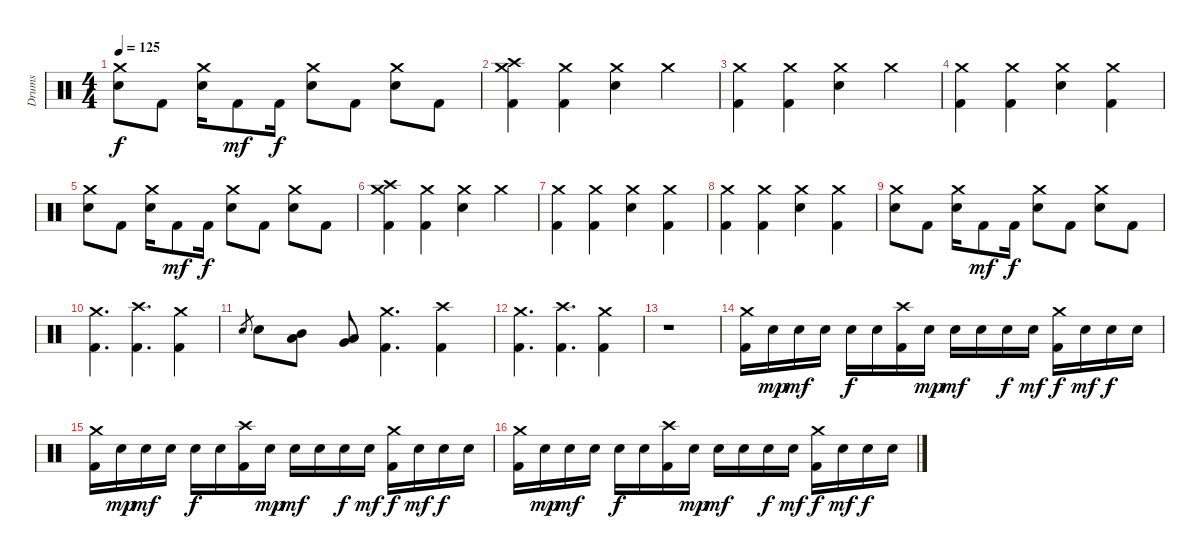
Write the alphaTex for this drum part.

\track ("Drums" "Drums") {instrument percussion}
\staff {score}
\articulation defaults
\ts (4 4)
\tempo 125
\clef neutral
\ks c
("Crash medium (hit)" "Electric Snare (hit)").8{dy f} "Kick (hit) 2".8 ("Crash medium (hit)" "Electric Snare (hit)").16 "Kick (hit) 2".8{dy mf} "Kick (hit) 2".16{dy f} ("Crash medium (hit)" "Electric Snare (hit)").8 "Kick (hit) 2".8 ("Crash medium (hit)" "Electric Snare (hit)").8 "Kick (hit) 2".8 |
("Crash medium (hit)" "Crash high (hit)" "Kick (hit) 2").4 ("Crash medium (hit)" "Kick (hit) 2").4 ("Crash medium (hit)" "Electric Snare (hit)").4 "Crash medium (hit)".4 |
("Crash medium (hit)" "Kick (hit) 2").4 ("Crash medium (hit)" "Kick (hit) 2").4 ("Crash medium (hit)" "Electric Snare (hit)").4 "Crash medium (hit)".4 |
("Crash medium (hit)" "Kick (hit) 2").4 ("Crash medium (hit)" "Kick (hit) 2").4 ("Crash medium (hit)" "Electric Snare (hit)").4 ("Crash medium (hit)" "Kick (hit) 2").4 |
("Crash medium (hit)" "Electric Snare (hit)").8 "Kick (hit) 2".8 ("Crash medium (hit)" "Electric Snare (hit)").16 "Kick (hit) 2".8{dy mf} "Kick (hit) 2".16{dy f} ("Crash medium (hit)" "Electric Snare (hit)").8 "Kick (hit) 2".8 ("Crash medium (hit)" "Electric Snare (hit)").8 "Kick (hit) 2".8 |
("Crash medium (hit)" "Crash high (hit)" "Kick (hit) 2").4 ("Crash medium (hit)" "Kick (hit) 2").4 ("Crash medium (hit)" "Electric Snare (hit)").4 "Crash medium (hit)".4 |
("Crash medium (hit)" "Kick (hit) 2").4 ("Crash medium (hit)" "Kick (hit) 2").4 ("Crash medium (hit)" "Electric Snare (hit)").4 ("Crash medium (hit)" "Kick (hit) 2").4 |
("Crash medium (hit)" "Kick (hit) 2").4 ("Crash medium (hit)" "Kick (hit) 2").4 ("Crash medium (hit)" "Electric Snare (hit)").4 ("Crash medium (hit)" "Kick (hit) 2").4 |
("Crash medium (hit)" "Electric Snare (hit)").8 "Kick (hit) 2".8 ("Crash medium (hit)" "Electric Snare (hit)").16 "Kick (hit) 2".8{dy mf} "Kick (hit) 2".16{dy f} ("Crash medium (hit)" "Electric Snare (hit)").8 "Kick (hit) 2".8 ("Crash medium (hit)" "Electric Snare (hit)").8 "Kick (hit) 2".8 |
("Crash medium (hit)" "Kick (hit) 2").4{d} ("Crash high (hit)" "Kick (hit) 2").4{d} ("Crash medium (hit)" "Kick (hit) 2").4 |
"Electric Snare (hit)".8{gr} "Electric Snare (hit)".8 ("Mid Tom (hit)" "Low Tom (hit)").8 ("Low Tom (hit)" "Very Low Tom (hit)").8 ("Crash medium (hit)" "Kick (hit) 2").4{d} ("Crash high (hit)" "Kick (hit) 2").4 |
("Crash medium (hit)" "Kick (hit) 2").4{d} ("Crash high (hit)" "Kick (hit) 2").4{d} ("Crash medium (hit)" "Kick (hit) 2").4 |
r.1 |
("Crash medium (hit)" "Kick (hit) 2").16 "Electric Snare (hit)".16{dy mp} "Electric Snare (hit)".16{dy mf} "Electric Snare (hit)".16 "Electric Snare (hit)".16{dy f} "Electric Snare (hit)".16 ("Crash high (hit)" "Kick (hit) 2").16 "Electric Snare (hit)".16{dy mp} "Electric Snare (hit)".16{dy mf} "Electric Snare (hit)".16 "Electric Snare (hit)".16{dy f} "Electric Snare (hit)".16{dy mf} ("Crash medium (hit)" "Kick (hit) 2").16{dy f} "Electric Snare (hit)".16{dy mf} "Electric Snare (hit)".16{dy f} "Electric Snare (hit)".16 |
("Crash medium (hit)" "Kick (hit) 2").16 "Electric Snare (hit)".16{dy mp} "Electric Snare (hit)".16{dy mf} "Electric Snare (hit)".16 "Electric Snare (hit)".16{dy f} "Electric Snare (hit)".16 ("Crash high (hit)" "Kick (hit) 2").16 "Electric Snare (hit)".16{dy mp} "Electric Snare (hit)".16{dy mf} "Electric Snare (hit)".16 "Electric Snare (hit)".16{dy f} "Electric Snare (hit)".16{dy mf} ("Crash medium (hit)" "Kick (hit) 2").16{dy f} "Electric Snare (hit)".16{dy mf} "Electric Snare (hit)".16{dy f} "Electric Snare (hit)".16 |
("Crash medium (hit)" "Kick (hit) 2").16 "Electric Snare (hit)".16{dy mp} "Electric Snare (hit)".16{dy mf} "Electric Snare (hit)".16 "Electric Snare (hit)".16{dy f} "Electric Snare (hit)".16 ("Crash high (hit)" "Kick (hit) 2").16 "Electric Snare (hit)".16{dy mp} "Electric Snare (hit)".16{dy mf} "Electric Snare (hit)".16 "Electric Snare (hit)".16{dy f} "Electric Snare (hit)".16{dy mf} ("Crash medium (hit)" "Kick (hit) 2").16{dy f} "Electric Snare (hit)".16{dy mf} "Electric Snare (hit)".16{dy f} "Electric Snare (hit)".16
